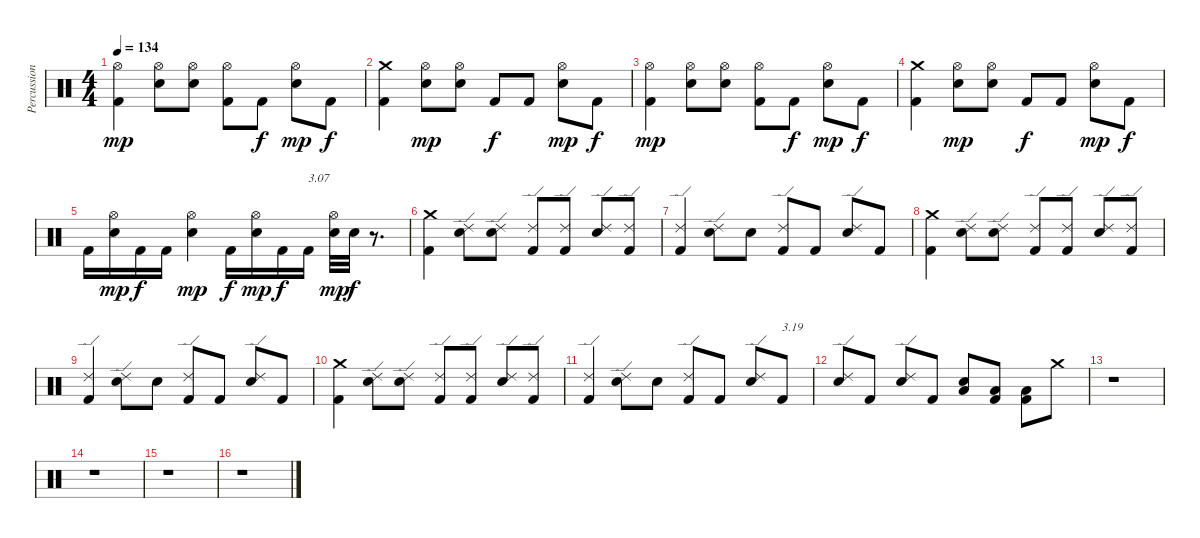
\track ("Percussions" "Percussion") {instrument percussion}
\staff {score}
\articulation defaults
\ts (4 4)
\tempo 134
\clef neutral
\ks c
("Kick (hit) 2" "Hi-Hat (open)").4{dy mp} ("Electric Snare (hit)" "Hi-Hat (open)").8 ("Electric Snare (hit)" "Hi-Hat (open)").8 ("Kick (hit) 2" "Hi-Hat (open)").8 "Kick (hit) 2".8{dy f} ("Electric Snare (hit)" "Hi-Hat (open)").8{dy mp} "Kick (hit) 2".8{dy f} |
("Kick (hit) 2" "Crash medium (hit)").4 ("Electric Snare (hit)" "Hi-Hat (open)").8{dy mp} ("Electric Snare (hit)" "Hi-Hat (open)").8 "Kick (hit) 2".8{dy f} "Kick (hit) 2".8 ("Electric Snare (hit)" "Hi-Hat (open)").8{dy mp} "Kick (hit) 2".8{dy f} |
("Kick (hit) 2" "Hi-Hat (open)").4{dy mp} ("Electric Snare (hit)" "Hi-Hat (open)").8 ("Electric Snare (hit)" "Hi-Hat (open)").8 ("Kick (hit) 2" "Hi-Hat (open)").8 "Kick (hit) 2".8{dy f} ("Electric Snare (hit)" "Hi-Hat (open)").8{dy mp} "Kick (hit) 2".8{dy f} |
("Kick (hit) 2" "Crash medium (hit)").4 ("Electric Snare (hit)" "Hi-Hat (open)").8{dy mp} ("Electric Snare (hit)" "Hi-Hat (open)").8 "Kick (hit) 2".8{dy f} "Kick (hit) 2".8 ("Electric Snare (hit)" "Hi-Hat (open)").8{dy mp} "Kick (hit) 2".8{dy f} |
"Kick (hit) 2".16 ("Electric Snare (hit)" "Hi-Hat (open)").16{dy mp} "Kick (hit) 2".16{dy f} "Kick (hit) 2".16 ("Electric Snare (hit)" "Hi-Hat (open)").4{dy mp} "Kick (hit) 2".16{dy f} ("Electric Snare (hit)" "Hi-Hat (open)").16{dy mp} "Kick (hit) 2".16{dy f} "Kick (hit) 2".16{txt "3.07"} ("Electric Snare (hit)" "Hi-Hat (open)").32{dy mp} "Electric Snare (hit)".32{dy f} r.8{d} |
("Kick (hit) 2" "Crash medium (hit)").4 ("Electric Snare (hit)" "Ride (edge) 2").8 ("Electric Snare (hit)" "Ride (edge) 2").8 ("Kick (hit) 2" "Ride (edge) 2").8 ("Kick (hit) 2" "Ride (edge) 2").8 ("Electric Snare (hit)" "Ride (edge) 2").8 ("Kick (hit) 2" "Ride (edge) 2").8 |
("Kick (hit) 2" "Ride (edge) 2").4 ("Electric Snare (hit)" "Ride (edge) 2").8 "Electric Snare (hit)".8 ("Kick (hit) 2" "Ride (edge) 2").8 "Kick (hit) 2".8 ("Electric Snare (hit)" "Ride (edge) 2").8 "Kick (hit) 2".8 |
("Kick (hit) 2" "Crash medium (hit)").4 ("Electric Snare (hit)" "Ride (edge) 2").8 ("Electric Snare (hit)" "Ride (edge) 2").8 ("Kick (hit) 2" "Ride (edge) 2").8 ("Kick (hit) 2" "Ride (edge) 2").8 ("Electric Snare (hit)" "Ride (edge) 2").8 ("Kick (hit) 2" "Ride (edge) 2").8 |
("Kick (hit) 2" "Ride (edge) 2").4 ("Electric Snare (hit)" "Ride (edge) 2").8 "Electric Snare (hit)".8 ("Kick (hit) 2" "Ride (edge) 2").8 "Kick (hit) 2".8 ("Electric Snare (hit)" "Ride (edge) 2").8 "Kick (hit) 2".8 |
("Kick (hit) 2" "Crash medium (hit)").4 ("Electric Snare (hit)" "Ride (edge) 2").8 ("Electric Snare (hit)" "Ride (edge) 2").8 ("Kick (hit) 2" "Ride (edge) 2").8 ("Kick (hit) 2" "Ride (edge) 2").8 ("Electric Snare (hit)" "Ride (edge) 2").8 ("Kick (hit) 2" "Ride (edge) 2").8 |
("Kick (hit) 2" "Ride (edge) 2").4 ("Electric Snare (hit)" "Ride (edge) 2").8 "Electric Snare (hit)".8 ("Kick (hit) 2" "Ride (edge) 2").8 "Kick (hit) 2".8 ("Electric Snare (hit)" "Ride (edge) 2").8 "Kick (hit) 2".8{txt "3.19"} |
("Electric Snare (hit)" "Ride (edge) 2").8 "Kick (hit) 2".8 ("Electric Snare (hit)" "Ride (edge) 2").8 "Kick (hit) 2".8 ("Electric Snare (hit)" "Low Floor Tom (hit)").8 ("Kick (hit) 2" "Low Floor Tom (hit)").8 ("Kick (hit) 2" "Low Floor Tom (hit)").8 "Crash medium (hit)".8 |
r.1 |
r.1 |
r.1 |
r.1
